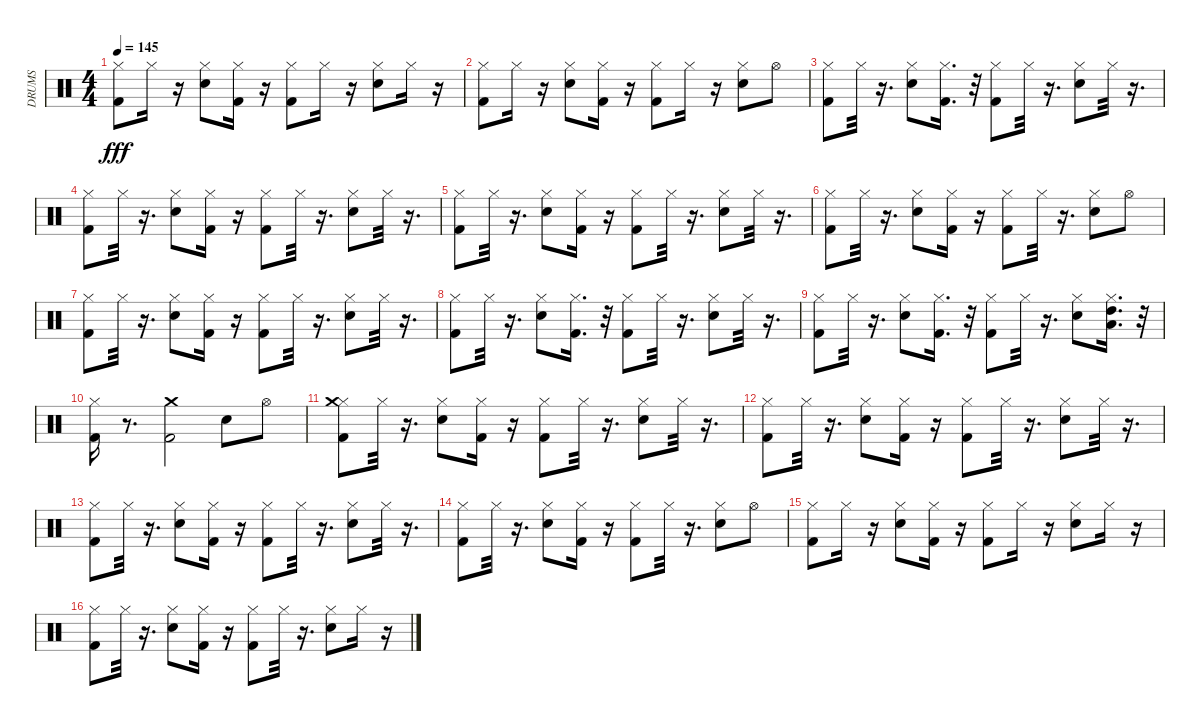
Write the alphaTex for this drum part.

\track ("DRUMS" "DRUMS") {instrument percussion}
\staff {score}
\articulation defaults
\ts (4 4)
\tempo 145
\clef neutral
\ks c
("Kick (hit) 2" "Hi-Hat (closed)").8{dy fff} "Hi-Hat (closed)".16 r.16 ("Electric Snare (hit)" "Hi-Hat (closed)").8 ("Kick (hit) 2" "Hi-Hat (closed)").16 r.16 ("Kick (hit) 2" "Hi-Hat (closed)").8 "Hi-Hat (closed)".16 r.16 ("Electric Snare (hit)" "Hi-Hat (closed)").8 "Hi-Hat (closed)".16 r.16 |
("Kick (hit) 2" "Hi-Hat (closed)").8 "Hi-Hat (closed)".16 r.16 ("Electric Snare (hit)" "Hi-Hat (closed)").8 ("Kick (hit) 2" "Hi-Hat (closed)").16 r.16 ("Kick (hit) 2" "Hi-Hat (closed)").8 "Hi-Hat (closed)".16 r.16 ("Electric Snare (hit)" "Hi-Hat (closed)").8 "Hi-Hat (open)".8 |
("Kick (hit) 2" "Hi-Hat (closed)").8 "Hi-Hat (closed)".32 r.16{d} ("Electric Snare (hit)" "Hi-Hat (closed)").8 ("Kick (hit) 2" "Hi-Hat (closed)").16{d} r.32 ("Kick (hit) 2" "Hi-Hat (closed)").8 "Hi-Hat (closed)".32 r.16{d} ("Electric Snare (hit)" "Hi-Hat (closed)").8 "Hi-Hat (closed)".32 r.16{d} |
("Kick (hit) 2" "Hi-Hat (closed)").8 "Hi-Hat (closed)".32 r.16{d} ("Electric Snare (hit)" "Hi-Hat (closed)").8 ("Kick (hit) 2" "Hi-Hat (closed)").16 r.16 ("Kick (hit) 2" "Hi-Hat (closed)").8 "Hi-Hat (closed)".32 r.16{d} ("Electric Snare (hit)" "Hi-Hat (closed)").8 "Hi-Hat (closed)".32 r.16{d} |
("Kick (hit) 2" "Hi-Hat (closed)").8 "Hi-Hat (closed)".32 r.16{d} ("Electric Snare (hit)" "Hi-Hat (closed)").8 ("Kick (hit) 2" "Hi-Hat (closed)").16 r.16 ("Kick (hit) 2" "Hi-Hat (closed)").8 "Hi-Hat (closed)".32 r.16{d} ("Electric Snare (hit)" "Hi-Hat (closed)").8 "Hi-Hat (closed)".32 r.16{d} |
("Kick (hit) 2" "Hi-Hat (closed)").8 "Hi-Hat (closed)".32 r.16{d} ("Electric Snare (hit)" "Hi-Hat (closed)").8 ("Kick (hit) 2" "Hi-Hat (closed)").16 r.16 ("Kick (hit) 2" "Hi-Hat (closed)").8 "Hi-Hat (closed)".32 r.16{d} ("Electric Snare (hit)" "Hi-Hat (closed)").8 "Hi-Hat (open)".8 |
("Kick (hit) 2" "Hi-Hat (closed)").8 "Hi-Hat (closed)".32 r.16{d} ("Electric Snare (hit)" "Hi-Hat (closed)").8 ("Kick (hit) 2" "Hi-Hat (closed)").16 r.16 ("Kick (hit) 2" "Hi-Hat (closed)").8 "Hi-Hat (closed)".32 r.16{d} ("Electric Snare (hit)" "Hi-Hat (closed)").8 "Hi-Hat (closed)".32 r.16{d} |
("Kick (hit) 2" "Hi-Hat (closed)").8 "Hi-Hat (closed)".32 r.16{d} ("Electric Snare (hit)" "Hi-Hat (closed)").8 ("Kick (hit) 2" "Hi-Hat (closed)").16{d} r.32 ("Kick (hit) 2" "Hi-Hat (closed)").8 "Hi-Hat (closed)".32 r.16{d} ("Electric Snare (hit)" "Hi-Hat (closed)").8 "Hi-Hat (closed)".32 r.16{d} |
("Kick (hit) 2" "Hi-Hat (closed)").8 "Hi-Hat (closed)".32 r.16{d} ("Electric Snare (hit)" "Hi-Hat (closed)").8 ("Kick (hit) 2" "Hi-Hat (closed)").16{d} r.32 ("Kick (hit) 2" "Hi-Hat (closed)").8 "Hi-Hat (closed)".32 r.16{d} ("Electric Snare (hit)" "Hi-Hat (closed)").8 ("Hi-Hat (closed)" "Low Tom (hit)" "High Tom (hit)").16{d} r.32 |
("Kick (hit) 2" "Hi-Hat (closed)").16 r.8{d} ("Kick (hit) 2" "Crash medium (hit)").2 "Electric Snare (hit)".8 "Hi-Hat (open)".8 |
("Kick (hit) 2" "Hi-Hat (closed)" "Crash medium (hit)").8 "Hi-Hat (closed)".32 r.16{d} ("Electric Snare (hit)" "Hi-Hat (closed)").8 ("Kick (hit) 2" "Hi-Hat (closed)").16 r.16 ("Kick (hit) 2" "Hi-Hat (closed)").8 "Hi-Hat (closed)".32 r.16{d} ("Electric Snare (hit)" "Hi-Hat (closed)").8 "Hi-Hat (closed)".32 r.16{d} |
("Kick (hit) 2" "Hi-Hat (closed)").8 "Hi-Hat (closed)".32 r.16{d} ("Electric Snare (hit)" "Hi-Hat (closed)").8 ("Kick (hit) 2" "Hi-Hat (closed)").16 r.16 ("Kick (hit) 2" "Hi-Hat (closed)").8 "Hi-Hat (closed)".32 r.16{d} ("Electric Snare (hit)" "Hi-Hat (closed)").8 "Hi-Hat (closed)".32 r.16{d} |
("Kick (hit) 2" "Hi-Hat (closed)").8 "Hi-Hat (closed)".32 r.16{d} ("Electric Snare (hit)" "Hi-Hat (closed)").8 ("Kick (hit) 2" "Hi-Hat (closed)").16 r.16 ("Kick (hit) 2" "Hi-Hat (closed)").8 "Hi-Hat (closed)".32 r.16{d} ("Electric Snare (hit)" "Hi-Hat (closed)").8 "Hi-Hat (closed)".32 r.16{d} |
("Kick (hit) 2" "Hi-Hat (closed)").8 "Hi-Hat (closed)".32 r.16{d} ("Electric Snare (hit)" "Hi-Hat (closed)").8 ("Kick (hit) 2" "Hi-Hat (closed)").16 r.16 ("Kick (hit) 2" "Hi-Hat (closed)").8 "Hi-Hat (closed)".32 r.16{d} ("Electric Snare (hit)" "Hi-Hat (closed)").8 "Hi-Hat (open)".8 |
("Kick (hit) 2" "Hi-Hat (closed)").8 "Hi-Hat (closed)".16 r.16 ("Electric Snare (hit)" "Hi-Hat (closed)").8 ("Kick (hit) 2" "Hi-Hat (closed)").16 r.16 ("Kick (hit) 2" "Hi-Hat (closed)").8 "Hi-Hat (closed)".16 r.16 ("Electric Snare (hit)" "Hi-Hat (closed)").8 "Hi-Hat (closed)".16 r.16 |
("Kick (hit) 2" "Hi-Hat (closed)").8 "Hi-Hat (closed)".32 r.16{d} ("Electric Snare (hit)" "Hi-Hat (closed)").8 ("Kick (hit) 2" "Hi-Hat (closed)").16 r.16 ("Kick (hit) 2" "Hi-Hat (closed)").8 "Hi-Hat (closed)".32 r.16{d} ("Electric Snare (hit)" "Hi-Hat (closed)").8 "Hi-Hat (closed)".16 r.16
